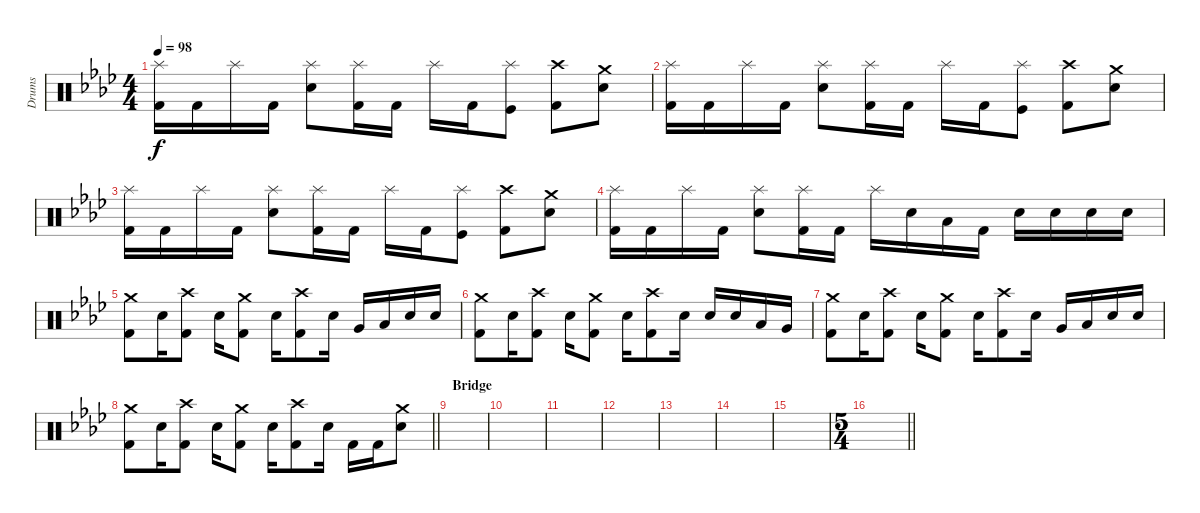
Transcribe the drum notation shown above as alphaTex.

\track ("Drums" "Drums") {instrument percussion}
\staff {score}
\articulation defaults
\ts (4 4)
\tempo 98
\clef neutral
\ks ab
("Splash (hit)" "Kick (hit) 2").16{dy f} "Kick (hit) 2".16 "Splash (hit)".16 "Kick (hit) 2".16 ("Splash (hit)" "Snare (hit) 2").8 ("Splash (hit)" "Kick (hit) 2").16 "Kick (hit) 2".16 "Splash (hit)".16 "Kick (hit) 2".16 ("Splash (hit)" "Kick (hit)").8 ("Crash high (hit)" "Kick (hit) 2").8 ("Crash medium (hit)" "Snare (hit) 2").8 |
("Splash (hit)" "Kick (hit) 2").16 "Kick (hit) 2".16 "Splash (hit)".16 "Kick (hit) 2".16 ("Splash (hit)" "Snare (hit) 2").8 ("Splash (hit)" "Kick (hit) 2").16 "Kick (hit) 2".16 "Splash (hit)".16 "Kick (hit) 2".16 ("Splash (hit)" "Kick (hit)").8 ("Crash high (hit)" "Kick (hit) 2").8 ("Crash medium (hit)" "Snare (hit) 2").8 |
("Splash (hit)" "Kick (hit) 2").16 "Kick (hit) 2".16 "Splash (hit)".16 "Kick (hit) 2".16 ("Splash (hit)" "Snare (hit) 2").8 ("Splash (hit)" "Kick (hit) 2").16 "Kick (hit) 2".16 "Splash (hit)".16 "Kick (hit) 2".16 ("Splash (hit)" "Kick (hit)").8 ("Crash high (hit)" "Kick (hit) 2").8 ("Crash medium (hit)" "Snare (hit) 2").8 |
("Splash (hit)" "Kick (hit) 2").16 "Kick (hit) 2".16 "Splash (hit)".16 "Kick (hit) 2".16 ("Splash (hit)" "Snare (hit) 2").8 ("Splash (hit)" "Kick (hit) 2").16 "Kick (hit) 2".16 "Splash (hit)".16 "Snare (hit) 2".16 "Low Tom (hit)".16 "Kick (hit) 2".16 "Snare (hit) 2".16 "Snare (hit) 2".16 "Snare (hit) 2".16 "Snare (hit) 2".16 |
("Crash medium (hit)" "Kick (hit) 2").8 "Snare (hit) 2".16 ("Crash high (hit)" "Kick (hit) 2").8 "Snare (hit) 2".16 ("Crash medium (hit)" "Kick (hit) 2").8 "Snare (hit) 2".16 ("Crash high (hit)" "Kick (hit) 2").8 "Snare (hit) 2".16 "Very Low Tom (hit)".16 "Low Tom (hit)".16 "Snare (hit) 2".16 "Snare (hit) 2".16 |
("Crash medium (hit)" "Kick (hit) 2").8 "Snare (hit) 2".16 ("Crash high (hit)" "Kick (hit) 2").8 "Snare (hit) 2".16 ("Crash medium (hit)" "Kick (hit) 2").8 "Snare (hit) 2".16 ("Crash high (hit)" "Kick (hit) 2").8 "Snare (hit) 2".16 "Snare (hit) 2".16 "Snare (hit) 2".16 "Low Tom (hit)".16 "Very Low Tom (hit)".16 |
("Crash medium (hit)" "Kick (hit) 2").8 "Snare (hit) 2".16 ("Crash high (hit)" "Kick (hit) 2").8 "Snare (hit) 2".16 ("Crash medium (hit)" "Kick (hit) 2").8 "Snare (hit) 2".16 ("Crash high (hit)" "Kick (hit) 2").8 "Snare (hit) 2".16 "Very Low Tom (hit)".16 "Low Tom (hit)".16 "Snare (hit) 2".16 "Snare (hit) 2".16 |
\barLineRight lightlight
("Crash medium (hit)" "Kick (hit) 2").8 "Snare (hit) 2".16 ("Crash high (hit)" "Kick (hit) 2").8 "Snare (hit) 2".16 ("Crash medium (hit)" "Kick (hit) 2").8 "Snare (hit) 2".16 ("Crash high (hit)" "Kick (hit) 2").8 "Snare (hit) 2".16 "Kick (hit) 2".16 "Kick (hit) 2".16 ("Crash medium (hit)" "Snare (hit) 2").8 |
\section ("" "Bridge")
|
|
|
|
|
|
|
\ts (5 4)
\barLineRight lightlight
